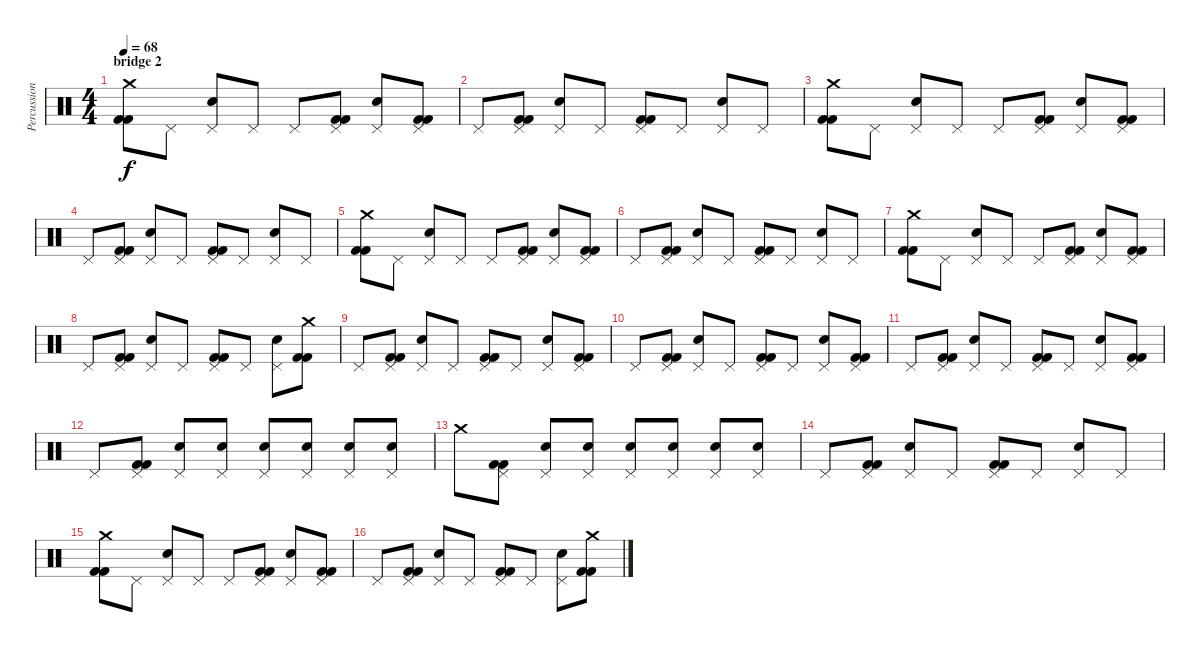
\track ("Percussion" "Percussion") {instrument percussion}
\staff {score}
\articulation defaults
\ts (4 4)
\section ("" "bridge 2")
\tempo 68
\clef neutral
\ks c
("Kick (hit) 2" "Kick (hit) 2" "Crash medium (hit)").8{dy f} "Pedal Hi-Hat (hit)".8 ("Electric Snare (hit)" "Pedal Hi-Hat (hit)").8 "Pedal Hi-Hat (hit)".8 "Pedal Hi-Hat (hit)".8 ("Kick (hit) 2" "Kick (hit) 2" "Pedal Hi-Hat (hit)").8 ("Electric Snare (hit)" "Pedal Hi-Hat (hit)").8 ("Kick (hit) 2" "Kick (hit) 2" "Pedal Hi-Hat (hit)").8 |
"Pedal Hi-Hat (hit)".8 ("Kick (hit) 2" "Kick (hit) 2" "Pedal Hi-Hat (hit)").8 ("Electric Snare (hit)" "Pedal Hi-Hat (hit)").8 "Pedal Hi-Hat (hit)".8 ("Kick (hit) 2" "Kick (hit) 2" "Pedal Hi-Hat (hit)").8 "Pedal Hi-Hat (hit)".8 ("Electric Snare (hit)" "Pedal Hi-Hat (hit)").8 "Pedal Hi-Hat (hit)".8 |
("Kick (hit) 2" "Kick (hit) 2" "Crash medium (hit)").8 "Pedal Hi-Hat (hit)".8 ("Electric Snare (hit)" "Pedal Hi-Hat (hit)").8 "Pedal Hi-Hat (hit)".8 "Pedal Hi-Hat (hit)".8 ("Kick (hit) 2" "Kick (hit) 2" "Pedal Hi-Hat (hit)").8 ("Electric Snare (hit)" "Pedal Hi-Hat (hit)").8 ("Kick (hit) 2" "Kick (hit) 2" "Pedal Hi-Hat (hit)").8 |
"Pedal Hi-Hat (hit)".8 ("Kick (hit) 2" "Kick (hit) 2" "Pedal Hi-Hat (hit)").8 ("Electric Snare (hit)" "Pedal Hi-Hat (hit)").8 "Pedal Hi-Hat (hit)".8 ("Kick (hit) 2" "Kick (hit) 2" "Pedal Hi-Hat (hit)").8 "Pedal Hi-Hat (hit)".8 ("Electric Snare (hit)" "Pedal Hi-Hat (hit)").8 "Pedal Hi-Hat (hit)".8 |
("Kick (hit) 2" "Kick (hit) 2" "Crash medium (hit)").8 "Pedal Hi-Hat (hit)".8 ("Electric Snare (hit)" "Pedal Hi-Hat (hit)").8 "Pedal Hi-Hat (hit)".8 "Pedal Hi-Hat (hit)".8 ("Kick (hit) 2" "Kick (hit) 2" "Pedal Hi-Hat (hit)").8 ("Electric Snare (hit)" "Pedal Hi-Hat (hit)").8 ("Kick (hit) 2" "Kick (hit) 2" "Pedal Hi-Hat (hit)").8 |
"Pedal Hi-Hat (hit)".8 ("Kick (hit) 2" "Kick (hit) 2" "Pedal Hi-Hat (hit)").8 ("Electric Snare (hit)" "Pedal Hi-Hat (hit)").8 "Pedal Hi-Hat (hit)".8 ("Kick (hit) 2" "Kick (hit) 2" "Pedal Hi-Hat (hit)").8 "Pedal Hi-Hat (hit)".8 ("Electric Snare (hit)" "Pedal Hi-Hat (hit)").8 "Pedal Hi-Hat (hit)".8 |
("Kick (hit) 2" "Kick (hit) 2" "Crash medium (hit)").8 "Pedal Hi-Hat (hit)".8 ("Electric Snare (hit)" "Pedal Hi-Hat (hit)").8 "Pedal Hi-Hat (hit)".8 "Pedal Hi-Hat (hit)".8 ("Kick (hit) 2" "Kick (hit) 2" "Pedal Hi-Hat (hit)").8 ("Electric Snare (hit)" "Pedal Hi-Hat (hit)").8 ("Kick (hit) 2" "Kick (hit) 2" "Pedal Hi-Hat (hit)").8 |
"Pedal Hi-Hat (hit)".8 ("Kick (hit) 2" "Kick (hit) 2" "Pedal Hi-Hat (hit)").8 ("Electric Snare (hit)" "Pedal Hi-Hat (hit)").8 "Pedal Hi-Hat (hit)".8 ("Kick (hit) 2" "Kick (hit) 2" "Pedal Hi-Hat (hit)").8 "Pedal Hi-Hat (hit)".8 ("Electric Snare (hit)" "Pedal Hi-Hat (hit)").8 ("Kick (hit) 2" "Kick (hit) 2" "Crash medium (hit)").8 |
"Pedal Hi-Hat (hit)".8 ("Kick (hit) 2" "Kick (hit) 2" "Pedal Hi-Hat (hit)").8 ("Electric Snare (hit)" "Pedal Hi-Hat (hit)").8 "Pedal Hi-Hat (hit)".8 ("Kick (hit) 2" "Kick (hit) 2" "Pedal Hi-Hat (hit)").8 "Pedal Hi-Hat (hit)".8 ("Electric Snare (hit)" "Pedal Hi-Hat (hit)").8 ("Kick (hit) 2" "Kick (hit) 2" "Pedal Hi-Hat (hit)").8 |
"Pedal Hi-Hat (hit)".8 ("Kick (hit) 2" "Kick (hit) 2" "Pedal Hi-Hat (hit)").8 ("Electric Snare (hit)" "Pedal Hi-Hat (hit)").8 "Pedal Hi-Hat (hit)".8 ("Kick (hit) 2" "Kick (hit) 2" "Pedal Hi-Hat (hit)").8 "Pedal Hi-Hat (hit)".8 ("Electric Snare (hit)" "Pedal Hi-Hat (hit)").8 ("Kick (hit) 2" "Kick (hit) 2" "Pedal Hi-Hat (hit)").8 |
"Pedal Hi-Hat (hit)".8 ("Kick (hit) 2" "Kick (hit) 2" "Pedal Hi-Hat (hit)").8 ("Electric Snare (hit)" "Pedal Hi-Hat (hit)").8 "Pedal Hi-Hat (hit)".8 ("Kick (hit) 2" "Kick (hit) 2" "Pedal Hi-Hat (hit)").8 "Pedal Hi-Hat (hit)".8 ("Electric Snare (hit)" "Pedal Hi-Hat (hit)").8 ("Kick (hit) 2" "Kick (hit) 2" "Pedal Hi-Hat (hit)").8 |
"Pedal Hi-Hat (hit)".8 ("Kick (hit) 2" "Kick (hit) 2" "Pedal Hi-Hat (hit)").8 ("Electric Snare (hit)" "Pedal Hi-Hat (hit)").8 ("Electric Snare (hit)" "Pedal Hi-Hat (hit)").8 ("Electric Snare (hit)" "Pedal Hi-Hat (hit)").8 ("Electric Snare (hit)" "Pedal Hi-Hat (hit)").8 ("Electric Snare (hit)" "Pedal Hi-Hat (hit)").8 ("Electric Snare (hit)" "Pedal Hi-Hat (hit)").8 |
"Crash medium (hit)".8 ("Kick (hit) 2" "Kick (hit) 2" "Pedal Hi-Hat (hit)").8 ("Electric Snare (hit)" "Pedal Hi-Hat (hit)").8 ("Electric Snare (hit)" "Pedal Hi-Hat (hit)").8 ("Electric Snare (hit)" "Pedal Hi-Hat (hit)").8 ("Electric Snare (hit)" "Pedal Hi-Hat (hit)").8 ("Electric Snare (hit)" "Pedal Hi-Hat (hit)").8 ("Electric Snare (hit)" "Pedal Hi-Hat (hit)").8 |
"Pedal Hi-Hat (hit)".8 ("Kick (hit) 2" "Kick (hit) 2" "Pedal Hi-Hat (hit)").8 ("Electric Snare (hit)" "Pedal Hi-Hat (hit)").8 "Pedal Hi-Hat (hit)".8 ("Kick (hit) 2" "Kick (hit) 2" "Pedal Hi-Hat (hit)").8 "Pedal Hi-Hat (hit)".8 ("Electric Snare (hit)" "Pedal Hi-Hat (hit)").8 "Pedal Hi-Hat (hit)".8 |
("Kick (hit) 2" "Kick (hit) 2" "Crash medium (hit)").8 "Pedal Hi-Hat (hit)".8 ("Electric Snare (hit)" "Pedal Hi-Hat (hit)").8 "Pedal Hi-Hat (hit)".8 "Pedal Hi-Hat (hit)".8 ("Kick (hit) 2" "Kick (hit) 2" "Pedal Hi-Hat (hit)").8 ("Electric Snare (hit)" "Pedal Hi-Hat (hit)").8 ("Kick (hit) 2" "Kick (hit) 2" "Pedal Hi-Hat (hit)").8 |
"Pedal Hi-Hat (hit)".8 ("Kick (hit) 2" "Kick (hit) 2" "Pedal Hi-Hat (hit)").8 ("Electric Snare (hit)" "Pedal Hi-Hat (hit)").8 "Pedal Hi-Hat (hit)".8 ("Kick (hit) 2" "Kick (hit) 2" "Pedal Hi-Hat (hit)").8 "Pedal Hi-Hat (hit)".8 ("Electric Snare (hit)" "Pedal Hi-Hat (hit)").8 ("Kick (hit) 2" "Kick (hit) 2" "Crash medium (hit)").8
